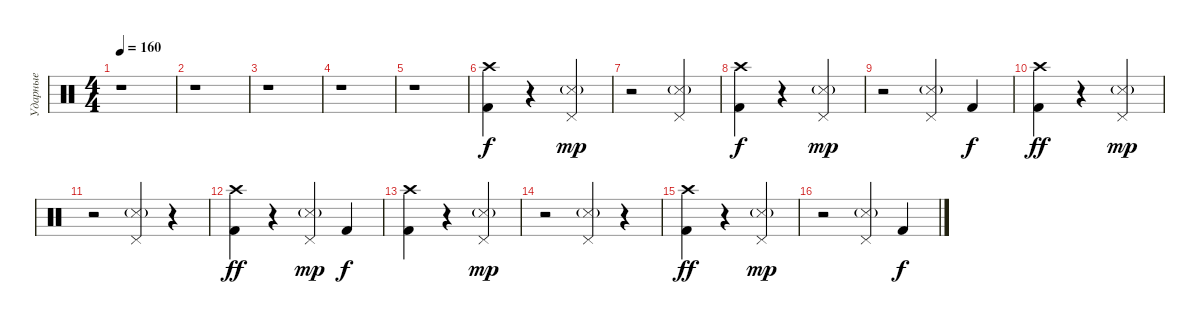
\track ("Ударные" "Ударные") {instrument percussion}
\staff {score}
\articulation defaults
\ts (4 4)
\tempo 160
\clef neutral
\ks c
r.1{dy f} |
r.1 |
r.1 |
r.1 |
r.1 |
("Kick (hit) 2" "Crash high (hit)").4{volume 14} r.4 ("Pedal Hi-Hat (hit)" "Snare (side stick) 3"{g}).4{dy mp} |
r.2 ("Pedal Hi-Hat (hit)" "Snare (side stick) 3"{g}).4 |
("Kick (hit) 2" "Crash high (hit)").4{dy f} r.4 ("Pedal Hi-Hat (hit)" "Snare (side stick) 3"{g}).4{dy mp} |
r.2 ("Pedal Hi-Hat (hit)" "Snare (side stick) 3"{g}).4 "Kick (hit) 2".4{dy f} |
("Kick (hit) 2" "Crash high (hit)").4{dy ff} r.4 ("Pedal Hi-Hat (hit)" "Snare (side stick) 3"{g}).4{dy mp} |
r.2 ("Pedal Hi-Hat (hit)" "Snare (side stick) 3"{g}).4 r.4 |
("Kick (hit) 2" "Crash high (hit)").4{dy ff} r.4 ("Pedal Hi-Hat (hit)" "Snare (side stick) 3"{g}).4{dy mp} "Kick (hit) 2".4{dy f} |
("Kick (hit) 2" "Crash high (hit)").4 r.4 ("Pedal Hi-Hat (hit)" "Snare (side stick) 3"{g}).4{dy mp} |
r.2 ("Pedal Hi-Hat (hit)" "Snare (side stick) 3"{g}).4 r.4 |
("Kick (hit) 2" "Crash high (hit)").4{dy ff} r.4 ("Pedal Hi-Hat (hit)" "Snare (side stick) 3"{g}).4{dy mp} |
r.2 ("Pedal Hi-Hat (hit)" "Snare (side stick) 3"{g}).4 "Kick (hit) 2".4{dy f}
